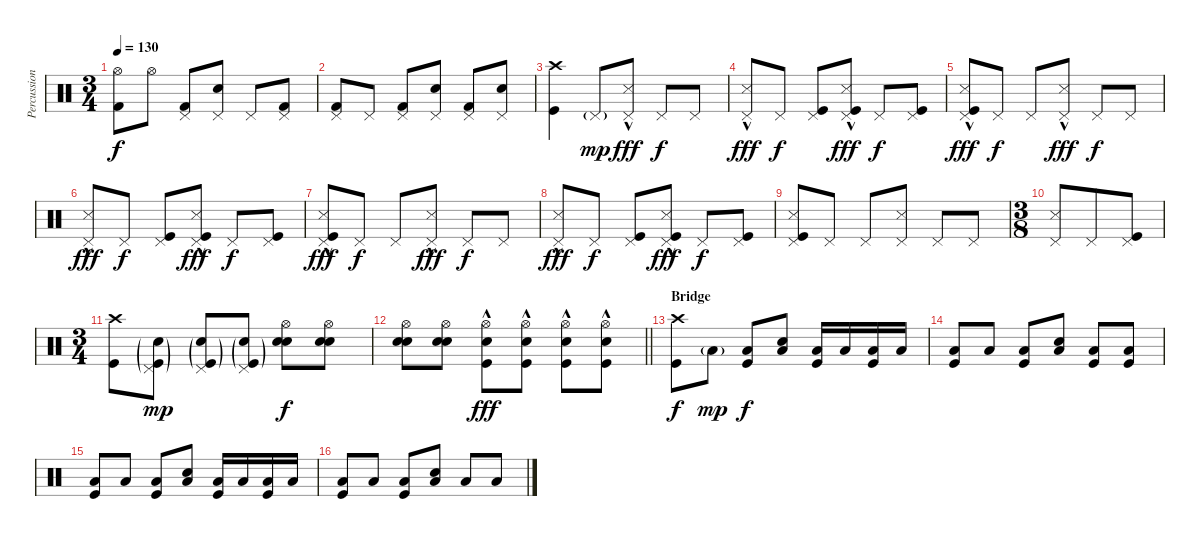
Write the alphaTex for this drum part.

\track ("Percussion" "Percussion") {instrument percussion}
\staff {score}
\articulation defaults
\ts (3 4)
\tempo 130
\clef neutral
\ks c
("Hi-Hat (open)" "Kick (hit) 2").8{dy f volume 13} "Hi-Hat (open)".8 ("Pedal Hi-Hat (hit)" "Kick (hit) 2").8 ("Pedal Hi-Hat (hit)" "Electric Snare (hit)").8 "Pedal Hi-Hat (hit)".8 ("Pedal Hi-Hat (hit)" "Kick (hit) 2").8 |
("Pedal Hi-Hat (hit)" "Kick (hit) 2").8 "Pedal Hi-Hat (hit)".8 ("Pedal Hi-Hat (hit)" "Kick (hit) 2").8 ("Pedal Hi-Hat (hit)" "Electric Snare (hit)").8 ("Pedal Hi-Hat (hit)" "Kick (hit) 2").8 ("Pedal Hi-Hat (hit)" "Electric Snare (hit)").8 |
("Crash high (hit)" "Kick (hit)").4{volume 10} "Pedal Hi-Hat (hit)"{g}.8{dy mp} ("Pedal Hi-Hat (hit)" "Snare (side stick) 3"{hac}).8{dy fff} "Pedal Hi-Hat (hit)".8{dy f} "Pedal Hi-Hat (hit)".8 |
("Pedal Hi-Hat (hit)" "Snare (side stick) 3"{hac}).8{dy fff} "Pedal Hi-Hat (hit)".8{dy f} ("Pedal Hi-Hat (hit)" "Kick (hit)").8 ("Pedal Hi-Hat (hit)" "Snare (side stick) 3"{hac} "Kick (hit)").8{dy fff} "Pedal Hi-Hat (hit)".8{dy f} ("Pedal Hi-Hat (hit)" "Kick (hit)").8 |
("Pedal Hi-Hat (hit)" "Snare (side stick) 3"{hac} "Kick (hit)").8{dy fff} "Pedal Hi-Hat (hit)".8{dy f} "Pedal Hi-Hat (hit)".8 ("Pedal Hi-Hat (hit)" "Snare (side stick) 3"{hac}).8{dy fff} "Pedal Hi-Hat (hit)".8{dy f} "Pedal Hi-Hat (hit)".8 |
("Pedal Hi-Hat (hit)" "Snare (side stick) 3"{hac}).8{dy fff} "Pedal Hi-Hat (hit)".8{dy f} ("Pedal Hi-Hat (hit)" "Kick (hit)").8 ("Pedal Hi-Hat (hit)" "Snare (side stick) 3"{hac} "Kick (hit)").8{dy fff} "Pedal Hi-Hat (hit)".8{dy f} ("Pedal Hi-Hat (hit)" "Kick (hit)").8 |
("Pedal Hi-Hat (hit)" "Snare (side stick) 3"{hac} "Kick (hit)").8{dy fff} "Pedal Hi-Hat (hit)".8{dy f} "Pedal Hi-Hat (hit)".8 ("Pedal Hi-Hat (hit)" "Snare (side stick) 3"{hac}).8{dy fff} "Pedal Hi-Hat (hit)".8{dy f} "Pedal Hi-Hat (hit)".8 |
("Pedal Hi-Hat (hit)" "Snare (side stick) 3"{hac}).8{dy fff} "Pedal Hi-Hat (hit)".8{dy f} ("Pedal Hi-Hat (hit)" "Kick (hit)").8 ("Pedal Hi-Hat (hit)" "Snare (side stick) 3"{hac} "Kick (hit)").8{dy fff} "Pedal Hi-Hat (hit)".8{dy f} ("Pedal Hi-Hat (hit)" "Kick (hit)").8 |
("Pedal Hi-Hat (hit)" "Snare (side stick) 3" "Kick (hit)").8 "Pedal Hi-Hat (hit)".8 "Pedal Hi-Hat (hit)".8 ("Pedal Hi-Hat (hit)" "Snare (side stick) 3").8 "Pedal Hi-Hat (hit)".8 "Pedal Hi-Hat (hit)".8 |
\ts (3 8)
("Pedal Hi-Hat (hit)" "Snare (side stick) 3").8 "Pedal Hi-Hat (hit)".8 ("Pedal Hi-Hat (hit)" "Kick (hit)").8 |
\ts (3 4)
("Crash high (hit)" "Kick (hit)").8 ("Pedal Hi-Hat (hit)"{g} "Snare (hit) 2"{g} "Kick (hit)"{g}).8{dy mp} ("Pedal Hi-Hat (hit)" "Snare (hit) 2"{g} "Kick (hit)"{g}).8 ("Pedal Hi-Hat (hit)" "Snare (hit) 2"{g} "Kick (hit)"{g}).8 ("Hi-Hat (open)" "Snare (hit) 2" "Snare (hit) 2").8{dy f} ("Hi-Hat (open)" "Snare (hit) 2" "Snare (hit) 2").8 |
\barLineRight lightlight
("Hi-Hat (open)" "Snare (hit) 2" "Snare (hit) 2").8 ("Hi-Hat (open)" "Snare (hit) 2" "Snare (hit) 2").8 ("Hi-Hat (open)" "Snare (hit) 2"{hac} "Kick (hit)"{hac}).8{dy fff} ("Hi-Hat (open)" "Snare (hit) 2"{hac} "Kick (hit)"{hac}).8 ("Hi-Hat (open)" "Snare (hit) 2"{hac} "Kick (hit)"{hac}).8 ("Hi-Hat (open)" "Snare (hit) 2"{hac} "Kick (hit)"{hac}).8 |
\section ("" "Bridge")
("Crash high (hit)" "Kick (hit)").8{dy f} "Low Floor Tom (hit)"{g}.8{dy mp} ("Low Floor Tom (hit)" "Kick (hit)").8{dy f} ("Low Floor Tom (hit)" "Snare (hit) 2").8 ("Low Floor Tom (hit)" "Kick (hit)").16 "Low Floor Tom (hit)".16 ("Low Floor Tom (hit)" "Kick (hit)").16 "Low Floor Tom (hit)".16 |
("Low Floor Tom (hit)" "Kick (hit)").8 "Low Floor Tom (hit)".8 ("Low Floor Tom (hit)" "Kick (hit)").8 ("Low Floor Tom (hit)" "Snare (hit) 2").8 ("Low Floor Tom (hit)" "Kick (hit)").8 ("Low Floor Tom (hit)" "Kick (hit)").8 |
("Low Floor Tom (hit)" "Kick (hit)").8 "Low Floor Tom (hit)".8 ("Low Floor Tom (hit)" "Kick (hit)").8 ("Low Floor Tom (hit)" "Snare (hit) 2").8 ("Low Floor Tom (hit)" "Kick (hit)").16 "Low Floor Tom (hit)".16 ("Low Floor Tom (hit)" "Kick (hit)").16 "Low Floor Tom (hit)".16 |
("Low Floor Tom (hit)" "Kick (hit)").8 "Low Floor Tom (hit)".8 ("Low Floor Tom (hit)" "Kick (hit)").8 ("Low Floor Tom (hit)" "Snare (hit) 2").8 "Low Floor Tom (hit)".8 "Low Floor Tom (hit)".8
